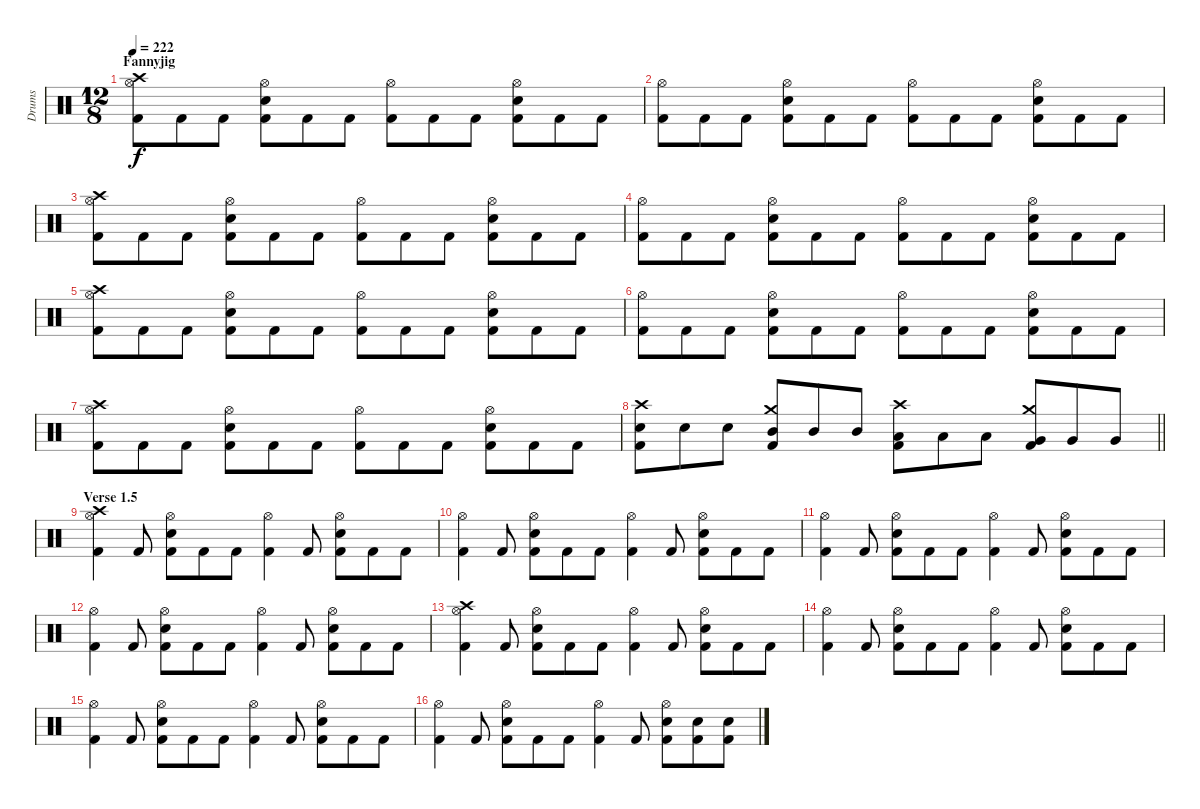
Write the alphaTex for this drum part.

\track ("Drums" "Drums") {instrument percussion}
\staff {score}
\articulation defaults
\ts (12 8)
\section ("" "Fannyjig")
\tempo 222
\clef neutral
\ks c
("Crash high (hit)" "Hi-Hat (open)" "Kick (hit) 2").8{dy f} "Kick (hit) 2".8 "Kick (hit) 2".8 ("Hi-Hat (open)" "Snare (hit) 2" "Kick (hit) 2").8 "Kick (hit) 2".8 "Kick (hit) 2".8 ("Hi-Hat (open)" "Kick (hit) 2").8 "Kick (hit) 2".8 "Kick (hit) 2".8 ("Hi-Hat (open)" "Snare (hit) 2" "Kick (hit) 2").8 "Kick (hit) 2".8 "Kick (hit) 2".8 |
("Hi-Hat (open)" "Kick (hit) 2").8 "Kick (hit) 2".8 "Kick (hit) 2".8 ("Hi-Hat (open)" "Snare (hit) 2" "Kick (hit) 2").8 "Kick (hit) 2".8 "Kick (hit) 2".8 ("Hi-Hat (open)" "Kick (hit) 2").8 "Kick (hit) 2".8 "Kick (hit) 2".8 ("Hi-Hat (open)" "Snare (hit) 2" "Kick (hit) 2").8 "Kick (hit) 2".8 "Kick (hit) 2".8 |
("Crash high (hit)" "Hi-Hat (open)" "Kick (hit) 2").8 "Kick (hit) 2".8 "Kick (hit) 2".8 ("Hi-Hat (open)" "Snare (hit) 2" "Kick (hit) 2").8 "Kick (hit) 2".8 "Kick (hit) 2".8 ("Hi-Hat (open)" "Kick (hit) 2").8 "Kick (hit) 2".8 "Kick (hit) 2".8 ("Hi-Hat (open)" "Snare (hit) 2" "Kick (hit) 2").8 "Kick (hit) 2".8 "Kick (hit) 2".8 |
("Hi-Hat (open)" "Kick (hit) 2").8 "Kick (hit) 2".8 "Kick (hit) 2".8 ("Hi-Hat (open)" "Snare (hit) 2" "Kick (hit) 2").8 "Kick (hit) 2".8 "Kick (hit) 2".8 ("Hi-Hat (open)" "Kick (hit) 2").8 "Kick (hit) 2".8 "Kick (hit) 2".8 ("Hi-Hat (open)" "Snare (hit) 2" "Kick (hit) 2").8 "Kick (hit) 2".8 "Kick (hit) 2".8 |
("Crash high (hit)" "Hi-Hat (open)" "Kick (hit) 2").8 "Kick (hit) 2".8 "Kick (hit) 2".8 ("Hi-Hat (open)" "Snare (hit) 2" "Kick (hit) 2").8 "Kick (hit) 2".8 "Kick (hit) 2".8 ("Hi-Hat (open)" "Kick (hit) 2").8 "Kick (hit) 2".8 "Kick (hit) 2".8 ("Hi-Hat (open)" "Snare (hit) 2" "Kick (hit) 2").8 "Kick (hit) 2".8 "Kick (hit) 2".8 |
("Hi-Hat (open)" "Kick (hit) 2").8 "Kick (hit) 2".8 "Kick (hit) 2".8 ("Hi-Hat (open)" "Snare (hit) 2" "Kick (hit) 2").8 "Kick (hit) 2".8 "Kick (hit) 2".8 ("Hi-Hat (open)" "Kick (hit) 2").8 "Kick (hit) 2".8 "Kick (hit) 2".8 ("Hi-Hat (open)" "Snare (hit) 2" "Kick (hit) 2").8 "Kick (hit) 2".8 "Kick (hit) 2".8 |
("Crash high (hit)" "Hi-Hat (open)" "Kick (hit) 2").8 "Kick (hit) 2".8 "Kick (hit) 2".8 ("Hi-Hat (open)" "Snare (hit) 2" "Kick (hit) 2").8 "Kick (hit) 2".8 "Kick (hit) 2".8 ("Hi-Hat (open)" "Kick (hit) 2").8 "Kick (hit) 2".8 "Kick (hit) 2".8 ("Hi-Hat (open)" "Snare (hit) 2" "Kick (hit) 2").8 "Kick (hit) 2".8 "Kick (hit) 2".8 |
\barLineRight lightlight
("Crash high (hit)" "Snare (hit) 2" "Kick (hit) 2").8 "Snare (hit) 2".8 "Snare (hit) 2".8 ("Crash medium (hit)" "Mid Tom (hit)" "Kick (hit) 2").8 "Mid Tom (hit)".8 "Mid Tom (hit)".8 ("Crash high (hit)" "Low Tom (hit)" "Kick (hit) 2").8 "Low Tom (hit)".8 "Low Tom (hit)".8 ("Crash medium (hit)" "Very Low Tom (hit)" "Kick (hit) 2").8 "Very Low Tom (hit)".8 "Very Low Tom (hit)".8 |
\section ("" "Verse 1.5")
("Crash high (hit)" "Hi-Hat (open)" "Kick (hit) 2").4 "Kick (hit) 2".8 ("Hi-Hat (open)" "Snare (hit) 2" "Kick (hit) 2").8 "Kick (hit) 2".8 "Kick (hit) 2".8 ("Hi-Hat (open)" "Kick (hit) 2").4 "Kick (hit) 2".8 ("Hi-Hat (open)" "Snare (hit) 2" "Kick (hit) 2").8 "Kick (hit) 2".8 "Kick (hit) 2".8 |
("Hi-Hat (open)" "Kick (hit) 2").4 "Kick (hit) 2".8 ("Hi-Hat (open)" "Snare (hit) 2" "Kick (hit) 2").8 "Kick (hit) 2".8 "Kick (hit) 2".8 ("Hi-Hat (open)" "Kick (hit) 2").4 "Kick (hit) 2".8 ("Hi-Hat (open)" "Snare (hit) 2" "Kick (hit) 2").8 "Kick (hit) 2".8 "Kick (hit) 2".8 |
("Hi-Hat (open)" "Kick (hit) 2").4 "Kick (hit) 2".8 ("Hi-Hat (open)" "Snare (hit) 2" "Kick (hit) 2").8 "Kick (hit) 2".8 "Kick (hit) 2".8 ("Hi-Hat (open)" "Kick (hit) 2").4 "Kick (hit) 2".8 ("Hi-Hat (open)" "Snare (hit) 2" "Kick (hit) 2").8 "Kick (hit) 2".8 "Kick (hit) 2".8 |
("Hi-Hat (open)" "Kick (hit) 2").4 "Kick (hit) 2".8 ("Hi-Hat (open)" "Snare (hit) 2" "Kick (hit) 2").8 "Kick (hit) 2".8 "Kick (hit) 2".8 ("Hi-Hat (open)" "Kick (hit) 2").4 "Kick (hit) 2".8 ("Hi-Hat (open)" "Snare (hit) 2" "Kick (hit) 2").8 "Kick (hit) 2".8 "Kick (hit) 2".8 |
("Crash high (hit)" "Hi-Hat (open)" "Kick (hit) 2").4 "Kick (hit) 2".8 ("Hi-Hat (open)" "Snare (hit) 2" "Kick (hit) 2").8 "Kick (hit) 2".8 "Kick (hit) 2".8 ("Hi-Hat (open)" "Kick (hit) 2").4 "Kick (hit) 2".8 ("Hi-Hat (open)" "Snare (hit) 2" "Kick (hit) 2").8 "Kick (hit) 2".8 "Kick (hit) 2".8 |
("Hi-Hat (open)" "Kick (hit) 2").4 "Kick (hit) 2".8 ("Hi-Hat (open)" "Snare (hit) 2" "Kick (hit) 2").8 "Kick (hit) 2".8 "Kick (hit) 2".8 ("Hi-Hat (open)" "Kick (hit) 2").4 "Kick (hit) 2".8 ("Hi-Hat (open)" "Snare (hit) 2" "Kick (hit) 2").8 "Kick (hit) 2".8 "Kick (hit) 2".8 |
("Hi-Hat (open)" "Kick (hit) 2").4 "Kick (hit) 2".8 ("Hi-Hat (open)" "Snare (hit) 2" "Kick (hit) 2").8 "Kick (hit) 2".8 "Kick (hit) 2".8 ("Hi-Hat (open)" "Kick (hit) 2").4 "Kick (hit) 2".8 ("Hi-Hat (open)" "Snare (hit) 2" "Kick (hit) 2").8 "Kick (hit) 2".8 "Kick (hit) 2".8 |
("Hi-Hat (open)" "Kick (hit) 2").4 "Kick (hit) 2".8 ("Hi-Hat (open)" "Snare (hit) 2" "Kick (hit) 2").8 "Kick (hit) 2".8 "Kick (hit) 2".8 ("Hi-Hat (open)" "Kick (hit) 2").4 "Kick (hit) 2".8 ("Hi-Hat (open)" "Snare (hit) 2" "Kick (hit) 2").8 ("Snare (hit) 2" "Kick (hit) 2").8 ("Snare (hit) 2" "Kick (hit) 2").8
